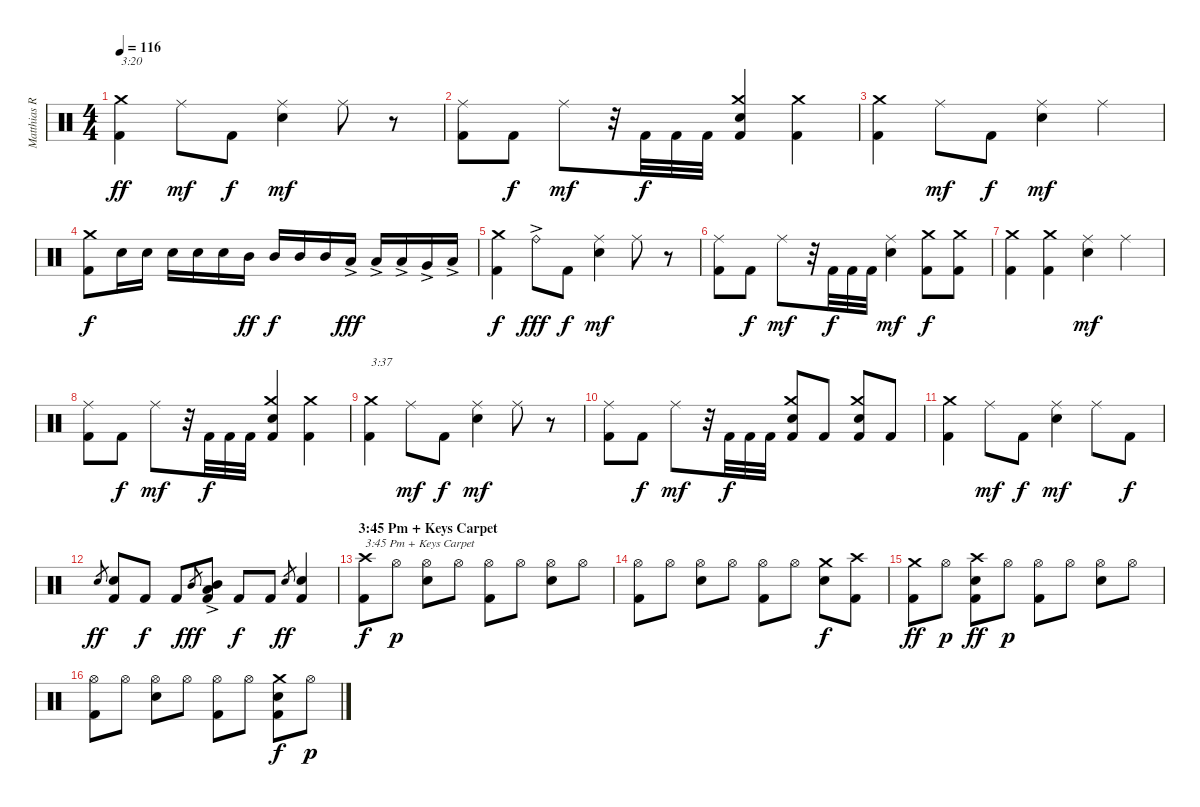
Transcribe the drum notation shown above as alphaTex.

\track ("Matthias R." "Matthias R") {instrument percussion}
\staff {score}
\articulation defaults
\ts (4 4)
\tempo 116
\clef neutral
\ks c
("Kick (hit) 2" "Crash medium (hit)").4{txt "3:20" dy ff} "Ride (middle)".8{dy mf} "Kick (hit) 2".8{dy f} ("Electric Snare (hit)" "Ride (middle)").4{dy mf} "Ride (middle)".8 r.8 |
("Kick (hit) 2" "Ride (middle)").8 "Kick (hit) 2".8{dy f} "Ride (middle)".8{dy mf} r.32 "Kick (hit) 2".32{dy f} "Kick (hit) 2".32 "Kick (hit) 2".32 ("Kick (hit) 2" "Electric Snare (hit)" "Crash medium (hit)").4 ("Kick (hit) 2" "Crash medium (hit)").4 |
("Kick (hit) 2" "Crash medium (hit)").4 "Ride (middle)".8{dy mf} "Kick (hit) 2".8{dy f} ("Electric Snare (hit)" "Ride (middle)").4{dy mf} "Ride (middle)".4 |
("Kick (hit) 2" "Crash medium (hit)").8{dy f} "Electric Snare (hit)".16 "Electric Snare (hit)".16 "Electric Snare (hit)".16 "Electric Snare (hit)".16 "Electric Snare (hit)".16 "Mid Tom (hit)".16{dy ff} "Mid Tom (hit)".16{dy f} "Mid Tom (hit)".16 "Mid Tom (hit)".16 "Low Tom (hit)"{ac}.16{dy fff} "Low Tom (hit)"{ac}.16 "Low Tom (hit)"{ac}.16 "Very Low Tom (hit)"{ac}.16 "Low Tom (hit)"{ac}.16 |
("Kick (hit) 2" "Crash medium (hit)").4{dy f} "Ride (bell)"{ac}.8{dy fff} "Kick (hit) 2".8{dy f} ("Electric Snare (hit)" "Ride (middle)").4{dy mf} "Ride (middle)".8 r.8 |
("Kick (hit) 2" "Ride (middle)").8 "Kick (hit) 2".8{dy f} "Ride (middle)".8{dy mf} r.32 "Kick (hit) 2".32{dy f} "Kick (hit) 2".32 "Kick (hit) 2".32 ("Electric Snare (hit)" "Ride (middle)").4{dy mf} ("Kick (hit) 2" "Crash medium (hit)").8{dy f} ("Kick (hit) 2" "Crash medium (hit)").8 |
("Kick (hit) 2" "Crash medium (hit)").4 ("Kick (hit) 2" "Crash medium (hit)").4 ("Electric Snare (hit)" "Ride (middle)").4{dy mf} "Ride (middle)".4 |
("Kick (hit) 2" "Ride (middle)").8 "Kick (hit) 2".8{dy f} "Ride (middle)".8{dy mf} r.32 "Kick (hit) 2".32{dy f} "Kick (hit) 2".32 "Kick (hit) 2".32 ("Kick (hit) 2" "Electric Snare (hit)" "Crash medium (hit)").4 ("Kick (hit) 2" "Crash medium (hit)").4 |
("Kick (hit) 2" "Crash medium (hit)").4{txt "3:37"} "Ride (middle)".8{dy mf} "Kick (hit) 2".8{dy f} ("Electric Snare (hit)" "Ride (middle)").4{dy mf} "Ride (middle)".8 r.8 |
("Kick (hit) 2" "Ride (middle)").8 "Kick (hit) 2".8{dy f} "Ride (middle)".8{dy mf} r.32 "Kick (hit) 2".32{dy f} "Kick (hit) 2".32 "Kick (hit) 2".32 ("Kick (hit) 2" "Electric Snare (hit)" "Crash medium (hit)").8 "Kick (hit) 2".8 ("Kick (hit) 2" "Electric Snare (hit)" "Crash medium (hit)").8 "Kick (hit) 2".8 |
("Kick (hit) 2" "Crash medium (hit)").4 "Ride (middle)".8{dy mf} "Kick (hit) 2".8{dy f} ("Electric Snare (hit)" "Ride (middle)").4{dy mf} "Ride (middle)".8 "Kick (hit) 2".8{dy f} |
"Electric Snare (hit)".8{gr dy ff} ("Kick (hit) 2" "Electric Snare (hit)").8 "Kick (hit) 2".8{dy f} "Kick (hit) 2".8 "Mid Tom (hit)".8{gr dy fff} ("Kick (hit) 2" "Mid Tom (hit)"{ac} "Low Tom (hit)"{ac}).8 "Kick (hit) 2".8{dy f} "Kick (hit) 2".8 "Electric Snare (hit)".8{gr dy ff} ("Kick (hit) 2" "Electric Snare (hit)").4 |
\section ("" "3:45 Pm + Keys Carpet")
("Kick (hit) 2" "Crash high (hit)").8{txt "3:45 Pm + Keys Carpet" dy f} "Hi-Hat (open)".8{dy p} ("Electric Snare (hit)" "Hi-Hat (open)").8 "Hi-Hat (open)".8 ("Kick (hit) 2" "Hi-Hat (open)").8 "Hi-Hat (open)".8 ("Electric Snare (hit)" "Hi-Hat (open)").8 "Hi-Hat (open)".8 |
("Kick (hit) 2" "Hi-Hat (open)").8 "Hi-Hat (open)".8 ("Electric Snare (hit)" "Hi-Hat (open)").8 "Hi-Hat (open)".8 ("Kick (hit) 2" "Hi-Hat (open)").8 "Hi-Hat (open)".8 ("Electric Snare (hit)" "Crash medium (hit)").8{dy f} ("Kick (hit) 2" "Crash high (hit)").8 |
("Kick (hit) 2" "Crash medium (hit)").8{dy ff} "Hi-Hat (open)".8{dy p} ("Kick (hit) 2" "Electric Snare (hit)" "Crash high (hit)").8{dy ff} "Hi-Hat (open)".8{dy p} ("Kick (hit) 2" "Hi-Hat (open)").8 "Hi-Hat (open)".8 ("Electric Snare (hit)" "Hi-Hat (open)").8 "Hi-Hat (open)".8 |
("Kick (hit) 2" "Hi-Hat (open)").8 "Hi-Hat (open)".8 ("Electric Snare (hit)" "Hi-Hat (open)").8 "Hi-Hat (open)".8 ("Kick (hit) 2" "Hi-Hat (open)").8 "Hi-Hat (open)".8 ("Kick (hit) 2" "Electric Snare (hit)" "Crash medium (hit)").8{dy f} "Hi-Hat (open)".8{dy p}
